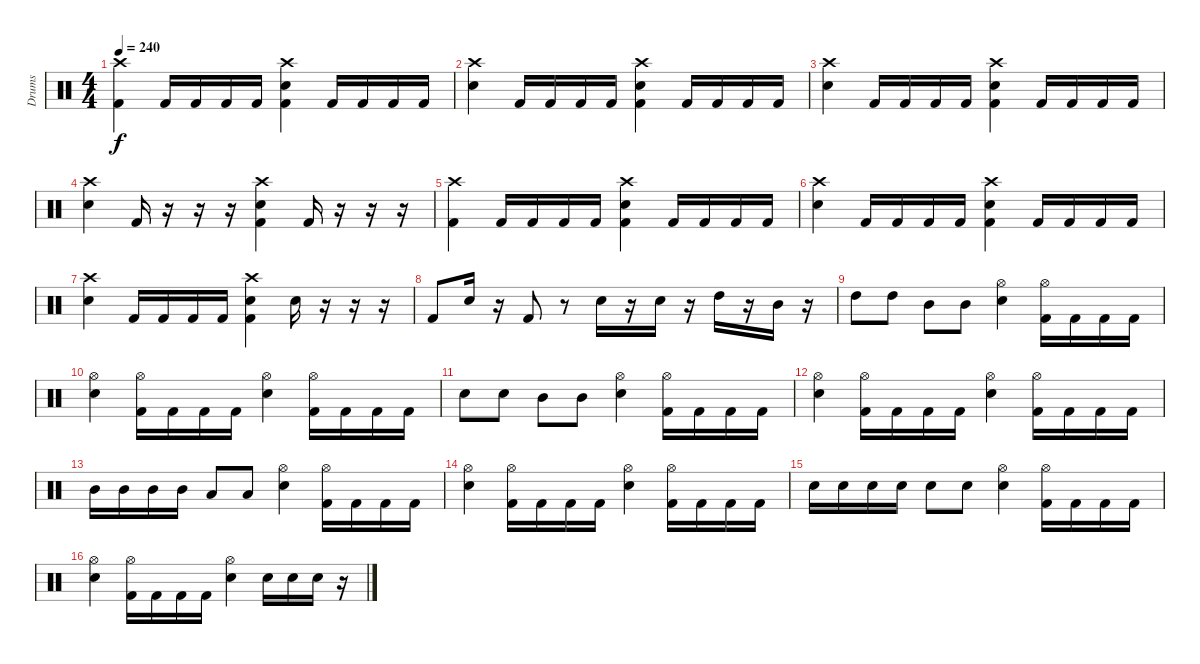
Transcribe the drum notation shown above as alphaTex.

\track ("Drums" "Drums") {instrument percussion}
\staff {score}
\articulation defaults
\ts (4 4)
\tempo 240
\clef neutral
\ks c
("Crash high (hit)" "Kick (hit) 2").4{dy f} "Kick (hit) 2".16 "Kick (hit) 2".16 "Kick (hit) 2".16 "Kick (hit) 2".16 ("Crash high (hit)" "Snare (hit) 2" "Kick (hit) 2").4 "Kick (hit) 2".16 "Kick (hit) 2".16 "Kick (hit) 2".16 "Kick (hit) 2".16 |
("Crash high (hit)" "Snare (hit) 2").4 "Kick (hit) 2".16 "Kick (hit) 2".16 "Kick (hit) 2".16 "Kick (hit) 2".16 ("Crash high (hit)" "Snare (hit) 2" "Kick (hit) 2").4 "Kick (hit) 2".16 "Kick (hit) 2".16 "Kick (hit) 2".16 "Kick (hit) 2".16 |
("Crash high (hit)" "Snare (hit) 2").4 "Kick (hit) 2".16 "Kick (hit) 2".16 "Kick (hit) 2".16 "Kick (hit) 2".16 ("Crash high (hit)" "Snare (hit) 2" "Kick (hit) 2").4 "Kick (hit) 2".16 "Kick (hit) 2".16 "Kick (hit) 2".16 "Kick (hit) 2".16 |
("Crash high (hit)" "Snare (hit) 2").4 "Kick (hit) 2".16 r.16 r.16 r.16 ("Crash high (hit)" "Snare (hit) 2" "Kick (hit) 2").4 "Kick (hit) 2".16 r.16 r.16 r.16 |
("Crash high (hit)" "Kick (hit) 2").4 "Kick (hit) 2".16 "Kick (hit) 2".16 "Kick (hit) 2".16 "Kick (hit) 2".16 ("Crash high (hit)" "Snare (hit) 2" "Kick (hit) 2").4 "Kick (hit) 2".16 "Kick (hit) 2".16 "Kick (hit) 2".16 "Kick (hit) 2".16 |
("Crash high (hit)" "Snare (hit) 2").4 "Kick (hit) 2".16 "Kick (hit) 2".16 "Kick (hit) 2".16 "Kick (hit) 2".16 ("Crash high (hit)" "Snare (hit) 2" "Kick (hit) 2").4 "Kick (hit) 2".16 "Kick (hit) 2".16 "Kick (hit) 2".16 "Kick (hit) 2".16 |
("Crash high (hit)" "Snare (hit) 2").4 "Kick (hit) 2".16 "Kick (hit) 2".16 "Kick (hit) 2".16 "Kick (hit) 2".16 ("Crash high (hit)" "Snare (hit) 2" "Kick (hit) 2").4 "Snare (hit) 2".16 r.16 r.16 r.16 |
"Kick (hit) 2".8 "Snare (hit) 2".16 r.16 "Kick (hit) 2".8 r.8 "Snare (hit) 2".16 r.16 "Snare (hit) 2".16 r.16 "High Tom (hit)".16 r.16 "Mid Tom (hit)".16 r.16 |
"High Tom (hit)".8 "High Tom (hit)".8 "Mid Tom (hit)".8 "Mid Tom (hit)".8 ("Hi-Hat (open)" "Snare (hit) 2").4 ("Hi-Hat (open)" "Kick (hit) 2").16 "Kick (hit) 2".16 "Kick (hit) 2".16 "Kick (hit) 2".16 |
("Hi-Hat (open)" "Snare (hit) 2").4 ("Hi-Hat (open)" "Kick (hit) 2").16 "Kick (hit) 2".16 "Kick (hit) 2".16 "Kick (hit) 2".16 ("Hi-Hat (open)" "Snare (hit) 2").4 ("Hi-Hat (open)" "Kick (hit) 2").16 "Kick (hit) 2".16 "Kick (hit) 2".16 "Kick (hit) 2".16 |
"Snare (hit) 2".8 "Snare (hit) 2".8 "Mid Tom (hit)".8 "Mid Tom (hit)".8 ("Hi-Hat (open)" "Snare (hit) 2").4 ("Hi-Hat (open)" "Kick (hit) 2").16 "Kick (hit) 2".16 "Kick (hit) 2".16 "Kick (hit) 2".16 |
("Hi-Hat (open)" "Snare (hit) 2").4 ("Hi-Hat (open)" "Kick (hit) 2").16 "Kick (hit) 2".16 "Kick (hit) 2".16 "Kick (hit) 2".16 ("Hi-Hat (open)" "Snare (hit) 2").4 ("Hi-Hat (open)" "Kick (hit) 2").16 "Kick (hit) 2".16 "Kick (hit) 2".16 "Kick (hit) 2".16 |
"Mid Tom (hit)".16 "Mid Tom (hit)".16 "Mid Tom (hit)".16 "Mid Tom (hit)".16 "Low Tom (hit)".8 "Low Tom (hit)".8 ("Hi-Hat (open)" "Snare (hit) 2").4 ("Hi-Hat (open)" "Kick (hit) 2").16 "Kick (hit) 2".16 "Kick (hit) 2".16 "Kick (hit) 2".16 |
("Hi-Hat (open)" "Snare (hit) 2").4 ("Hi-Hat (open)" "Kick (hit) 2").16 "Kick (hit) 2".16 "Kick (hit) 2".16 "Kick (hit) 2".16 ("Hi-Hat (open)" "Snare (hit) 2").4 ("Hi-Hat (open)" "Kick (hit) 2").16 "Kick (hit) 2".16 "Kick (hit) 2".16 "Kick (hit) 2".16 |
"Snare (hit) 2".16 "Snare (hit) 2".16 "Snare (hit) 2".16 "Snare (hit) 2".16 "Snare (hit) 2".8 "Snare (hit) 2".8 ("Hi-Hat (open)" "Snare (hit) 2").4 ("Hi-Hat (open)" "Kick (hit) 2").16 "Kick (hit) 2".16 "Kick (hit) 2".16 "Kick (hit) 2".16 |
("Hi-Hat (open)" "Snare (hit) 2").4 ("Hi-Hat (open)" "Kick (hit) 2").16 "Kick (hit) 2".16 "Kick (hit) 2".16 "Kick (hit) 2".16 ("Hi-Hat (open)" "Snare (hit) 2").4 "Snare (hit) 2".16 "Snare (hit) 2".16 "Snare (hit) 2".16 r.16
